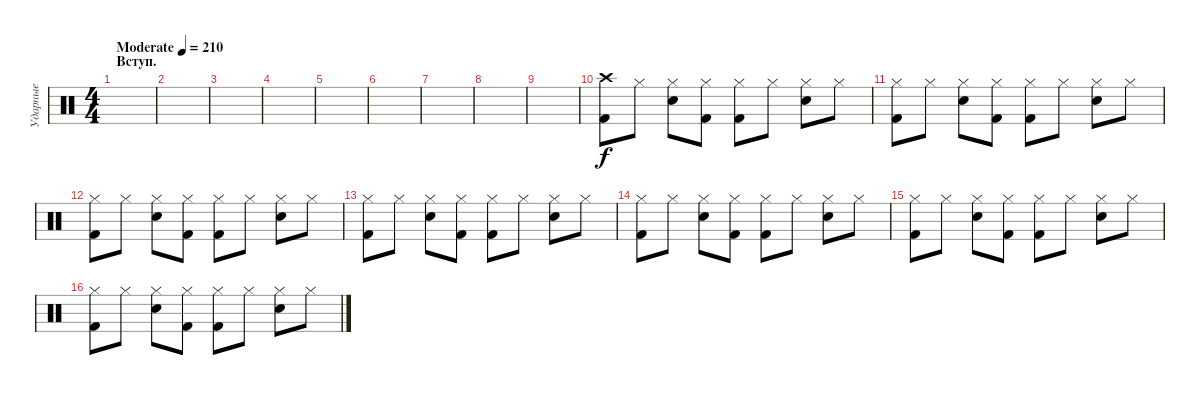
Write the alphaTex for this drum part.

\track ("Ударные" "Ударные") {instrument percussion}
\staff {score}
\articulation defaults
\ts (4 4)
\section ("" "Вступ.")
\tempo (210 "Moderate")
\clef neutral
\ks c
|
|
|
|
|
|
|
|
|
("Crash high (hit)" "Kick (hit) 2").8 "Hi-Hat (closed)".8 ("Hi-Hat (closed)" "Snare (hit) 2").8 ("Hi-Hat (closed)" "Kick (hit) 2").8 ("Hi-Hat (closed)" "Kick (hit) 2").8 "Hi-Hat (closed)".8 ("Hi-Hat (closed)" "Snare (hit) 2").8 "Hi-Hat (closed)".8 |
("Hi-Hat (closed)" "Kick (hit) 2").8 "Hi-Hat (closed)".8 ("Hi-Hat (closed)" "Snare (hit) 2").8 ("Hi-Hat (closed)" "Kick (hit) 2").8 ("Hi-Hat (closed)" "Kick (hit) 2").8 "Hi-Hat (closed)".8 ("Hi-Hat (closed)" "Snare (hit) 2").8 "Hi-Hat (closed)".8 |
("Hi-Hat (closed)" "Kick (hit) 2").8 "Hi-Hat (closed)".8 ("Hi-Hat (closed)" "Snare (hit) 2").8 ("Hi-Hat (closed)" "Kick (hit) 2").8 ("Hi-Hat (closed)" "Kick (hit) 2").8 "Hi-Hat (closed)".8 ("Hi-Hat (closed)" "Snare (hit) 2").8 "Hi-Hat (closed)".8 |
("Hi-Hat (closed)" "Kick (hit) 2").8 "Hi-Hat (closed)".8 ("Hi-Hat (closed)" "Snare (hit) 2").8 ("Hi-Hat (closed)" "Kick (hit) 2").8 ("Hi-Hat (closed)" "Kick (hit) 2").8 "Hi-Hat (closed)".8 ("Hi-Hat (closed)" "Snare (hit) 2").8 "Hi-Hat (closed)".8 |
("Hi-Hat (closed)" "Kick (hit) 2").8 "Hi-Hat (closed)".8 ("Hi-Hat (closed)" "Snare (hit) 2").8 ("Hi-Hat (closed)" "Kick (hit) 2").8 ("Hi-Hat (closed)" "Kick (hit) 2").8 "Hi-Hat (closed)".8 ("Hi-Hat (closed)" "Snare (hit) 2").8 "Hi-Hat (closed)".8 |
("Hi-Hat (closed)" "Kick (hit) 2").8 "Hi-Hat (closed)".8 ("Hi-Hat (closed)" "Snare (hit) 2").8 ("Hi-Hat (closed)" "Kick (hit) 2").8 ("Hi-Hat (closed)" "Kick (hit) 2").8 "Hi-Hat (closed)".8 ("Hi-Hat (closed)" "Snare (hit) 2").8 "Hi-Hat (closed)".8 |
("Hi-Hat (closed)" "Kick (hit) 2").8 "Hi-Hat (closed)".8 ("Hi-Hat (closed)" "Snare (hit) 2").8 ("Hi-Hat (closed)" "Kick (hit) 2").8 ("Hi-Hat (closed)" "Kick (hit) 2").8 "Hi-Hat (closed)".8 ("Hi-Hat (closed)" "Snare (hit) 2").8 "Hi-Hat (closed)".8
